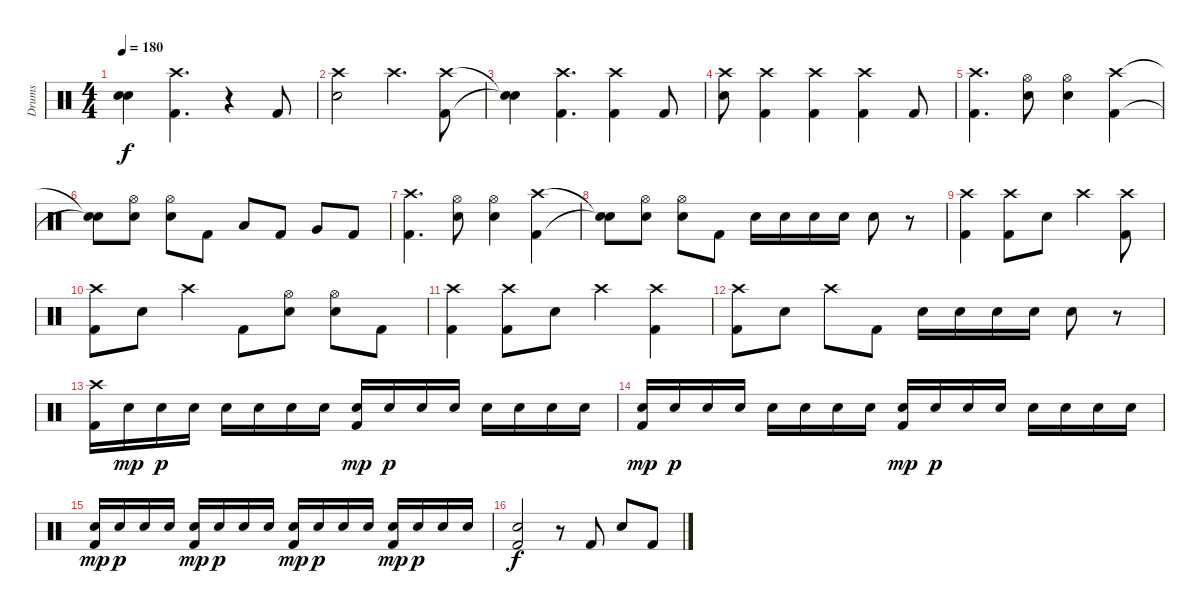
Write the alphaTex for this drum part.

\track ("Drums" "Drums") {instrument percussion}
\staff {score}
\articulation defaults
\ts (4 4)
\tempo 180
\clef neutral
\ks c
("Snare (hit)"{t} "Snare (hit)"{t}).4{dy f} ("Crash high (hit)" "Kick (hit) 2").4{d} r.4 "Kick (hit) 2".8 |
("Crash high (hit)" "Electric Snare (hit)").2 "Crash high (hit)".4{d} ("Crash high (hit)" "Kick (hit) 2").8 |
("Snare (hit)"{t} "Snare (hit)"{t}).4 ("Crash high (hit)" "Kick (hit) 2").4{d} ("Crash high (hit)" "Kick (hit) 2").4 "Kick (hit) 2".8 |
("Crash high (hit)" "Electric Snare (hit)").8 ("Crash high (hit)" "Kick (hit) 2").4 ("Crash high (hit)" "Kick (hit) 2").4 ("Crash high (hit)" "Kick (hit) 2").4 "Kick (hit) 2".8 |
("Crash high (hit)" "Kick (hit) 2").4{d} ("Hi-Hat (open)" "Electric Snare (hit)").8 ("Hi-Hat (open)" "Electric Snare (hit)").4 ("Crash high (hit)" "Kick (hit) 2").4 |
("Snare (hit)"{t} "Snare (hit)"{t}).8 ("Hi-Hat (open)" "Electric Snare (hit)").8 ("Hi-Hat (open)" "Electric Snare (hit)").8 "Kick (hit) 2".8 "Low Tom (hit)".8 "Kick (hit) 2".8 "Very Low Tom (hit)".8 "Kick (hit) 2".8 |
("Crash high (hit)" "Kick (hit) 2").4{d} ("Hi-Hat (open)" "Electric Snare (hit)").8 ("Hi-Hat (open)" "Electric Snare (hit)").4 ("Crash high (hit)" "Kick (hit) 2").4 |
("Snare (hit)"{t} "Snare (hit)"{t}).8 ("Hi-Hat (open)" "Electric Snare (hit)").8 ("Hi-Hat (open)" "Electric Snare (hit)").8 "Kick (hit) 2".8 "Electric Snare (hit)".16 "Electric Snare (hit)".16 "Electric Snare (hit)".16 "Electric Snare (hit)".16 "Electric Snare (hit)".8 r.8 |
("Crash high (hit)" "Kick (hit) 2").4 ("Crash high (hit)" "Kick (hit) 2").8 "Electric Snare (hit)".8 "Crash high (hit)".4 ("Crash high (hit)" "Kick (hit) 2").8 |
("Crash high (hit)" "Kick (hit) 2").8 "Electric Snare (hit)".8 "Crash high (hit)".4 "Kick (hit) 2".8 ("Hi-Hat (open)" "Electric Snare (hit)").8 ("Hi-Hat (open)" "Electric Snare (hit)").8 "Kick (hit) 2".8 |
("Crash high (hit)" "Kick (hit) 2").4 ("Crash high (hit)" "Kick (hit) 2").8 "Electric Snare (hit)".8 "Crash high (hit)".4 ("Crash high (hit)" "Kick (hit) 2").4 |
("Crash high (hit)" "Kick (hit) 2").8 "Electric Snare (hit)".8 "Crash high (hit)".8 "Kick (hit) 2".8 "Electric Snare (hit)".16 "Electric Snare (hit)".16 "Electric Snare (hit)".16 "Electric Snare (hit)".16 "Electric Snare (hit)".8 r.8 |
("Crash high (hit)" "Kick (hit) 2").16 "Electric Snare (hit)".16{dy mp} "Electric Snare (hit)".16{dy p} "Electric Snare (hit)".16 "Electric Snare (hit)".16 "Electric Snare (hit)".16 "Electric Snare (hit)".16 "Electric Snare (hit)".16 ("Electric Snare (hit)" "Kick (hit) 2").16{dy mp} "Electric Snare (hit)".16{dy p} "Electric Snare (hit)".16 "Electric Snare (hit)".16 "Electric Snare (hit)".16 "Electric Snare (hit)".16 "Electric Snare (hit)".16 "Electric Snare (hit)".16 |
("Electric Snare (hit)" "Kick (hit) 2").16{dy mp} "Electric Snare (hit)".16{dy p} "Electric Snare (hit)".16 "Electric Snare (hit)".16 "Electric Snare (hit)".16 "Electric Snare (hit)".16 "Electric Snare (hit)".16 "Electric Snare (hit)".16 ("Electric Snare (hit)" "Kick (hit) 2").16{dy mp} "Electric Snare (hit)".16{dy p} "Electric Snare (hit)".16 "Electric Snare (hit)".16 "Electric Snare (hit)".16 "Electric Snare (hit)".16 "Electric Snare (hit)".16 "Electric Snare (hit)".16 |
("Electric Snare (hit)" "Kick (hit) 2").16{dy mp} "Electric Snare (hit)".16{dy p} "Electric Snare (hit)".16 "Electric Snare (hit)".16 ("Electric Snare (hit)" "Kick (hit) 2").16{dy mp} "Electric Snare (hit)".16{dy p} "Electric Snare (hit)".16 "Electric Snare (hit)".16 ("Electric Snare (hit)" "Kick (hit) 2").16{dy mp} "Electric Snare (hit)".16{dy p} "Electric Snare (hit)".16 "Electric Snare (hit)".16 ("Electric Snare (hit)" "Kick (hit) 2").16{dy mp} "Electric Snare (hit)".16{dy p} "Electric Snare (hit)".16 "Electric Snare (hit)".16 |
("Electric Snare (hit)" "Kick (hit) 2").2{dy f} r.8 "Kick (hit) 2".8 "Electric Snare (hit)".8 "Kick (hit) 2".8
